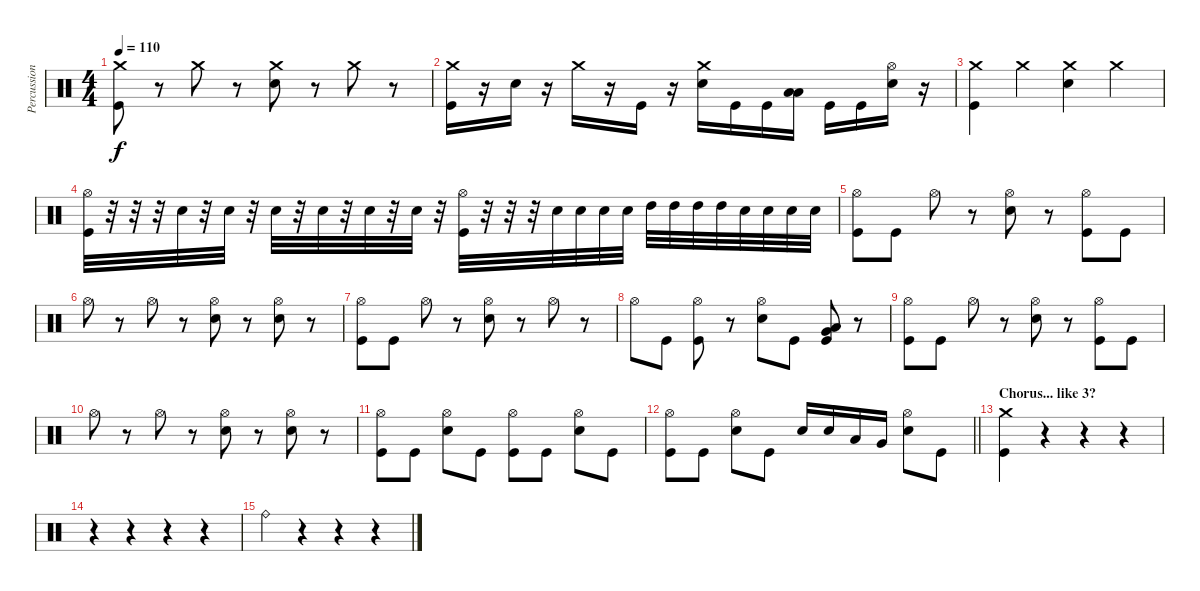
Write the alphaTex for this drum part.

\track ("Percussion" "Percussion") {instrument percussion}
\staff {score}
\articulation defaults
\ts (4 4)
\tempo 110
\clef neutral
\ks c
("Crash medium (hit)" "Kick (hit)").8{dy f} r.8 "Crash medium (hit)".8 r.8 ("Crash medium (hit)" "Electric Snare (hit)").8 r.8 "Crash medium (hit)".8 r.8 |
("Crash medium (hit)" "Kick (hit)").16 r.16 "Electric Snare (hit)".16 r.16 "Crash medium (hit)".16 r.16 "Kick (hit)".16 r.16 ("Crash medium (hit)" "Electric Snare (hit)").16 "Kick (hit)".16 "Kick (hit)".16 ("Low Tom (hit)" "Low Floor Tom (hit)").16 "Kick (hit)".16 "Kick (hit)".16 ("Hi-Hat (open)" "Electric Snare (hit)").16 r.16 |
("Crash medium (hit)" "Kick (hit)").4 "Crash medium (hit)".4 ("Crash medium (hit)" "Electric Snare (hit)").4 "Crash medium (hit)".4 |
("Hi-Hat (open)" "Kick (hit)").32 r.32 r.32 r.32 "Electric Snare (hit)".32 r.32 "Electric Snare (hit)".32 r.32 "Electric Snare (hit)".32 r.32 "Electric Snare (hit)".32 r.32 "Electric Snare (hit)".32 r.32 "Electric Snare (hit)".32 r.32 ("Hi-Hat (open)" "Kick (hit)").32 r.32 r.32 r.32 "Electric Snare (hit)".32 "Electric Snare (hit)".32 "Electric Snare (hit)".32 "Electric Snare (hit)".32 "High Tom (hit)".32 "High Tom (hit)".32 "High Tom (hit)".32 "High Tom (hit)".32 "Electric Snare (hit)".32 "Electric Snare (hit)".32 "Electric Snare (hit)".32 "Electric Snare (hit)".32 |
("Hi-Hat (open)" "Kick (hit)").8 "Kick (hit)".8 "Hi-Hat (open)".8 r.8 ("Hi-Hat (open)" "Electric Snare (hit)").8 r.8 ("Hi-Hat (open)" "Kick (hit)").8 "Kick (hit)".8 |
"Hi-Hat (open)".8 r.8 "Hi-Hat (open)".8 r.8 ("Hi-Hat (open)" "Electric Snare (hit)").8 r.8 ("Hi-Hat (open)" "Electric Snare (hit)").8 r.8 |
("Hi-Hat (open)" "Kick (hit)").8 "Kick (hit)".8 "Hi-Hat (open)".8 r.8 ("Hi-Hat (open)" "Electric Snare (hit)").8 r.8 "Hi-Hat (open)".8 r.8 |
"Hi-Hat (open)".8 "Kick (hit)".8 ("Hi-Hat (open)" "Kick (hit)").8 r.8 ("Hi-Hat (open)" "Electric Snare (hit)").8 "Kick (hit)".8 ("Low Tom (hit)" "Very Low Tom (hit)" "Kick (hit)").8 r.8 |
("Hi-Hat (open)" "Kick (hit)").8 "Kick (hit)".8 "Hi-Hat (open)".8 r.8 ("Hi-Hat (open)" "Electric Snare (hit)").8 r.8 ("Hi-Hat (open)" "Kick (hit)").8 "Kick (hit)".8 |
"Hi-Hat (open)".8 r.8 "Hi-Hat (open)".8 r.8 ("Hi-Hat (open)" "Electric Snare (hit)").8 r.8 ("Hi-Hat (open)" "Electric Snare (hit)").8 r.8 |
("Hi-Hat (open)" "Kick (hit)").8 "Kick (hit)".8 ("Hi-Hat (open)" "Electric Snare (hit)").8 "Kick (hit)".8 ("Hi-Hat (open)" "Kick (hit)").8 "Kick (hit)".8 ("Hi-Hat (open)" "Electric Snare (hit)").8 "Kick (hit)".8 |
\barLineRight lightlight
("Hi-Hat (open)" "Kick (hit)").8 "Kick (hit)".8 ("Hi-Hat (open)" "Electric Snare (hit)").8 "Kick (hit)".8 "Electric Snare (hit)".16 "Electric Snare (hit)".16 "Low Tom (hit)".16 "Very Low Tom (hit)".16 ("Hi-Hat (open)" "Electric Snare (hit)").8 "Kick (hit)".8 |
\section ("" "Chorus... like 3?")
("Crash medium (hit)" "Kick (hit)").4 r.4 r.4 r.4 |
r.4 r.4 r.4 r.4 |
"Ride (bell)".4 r.4 r.4 r.4
